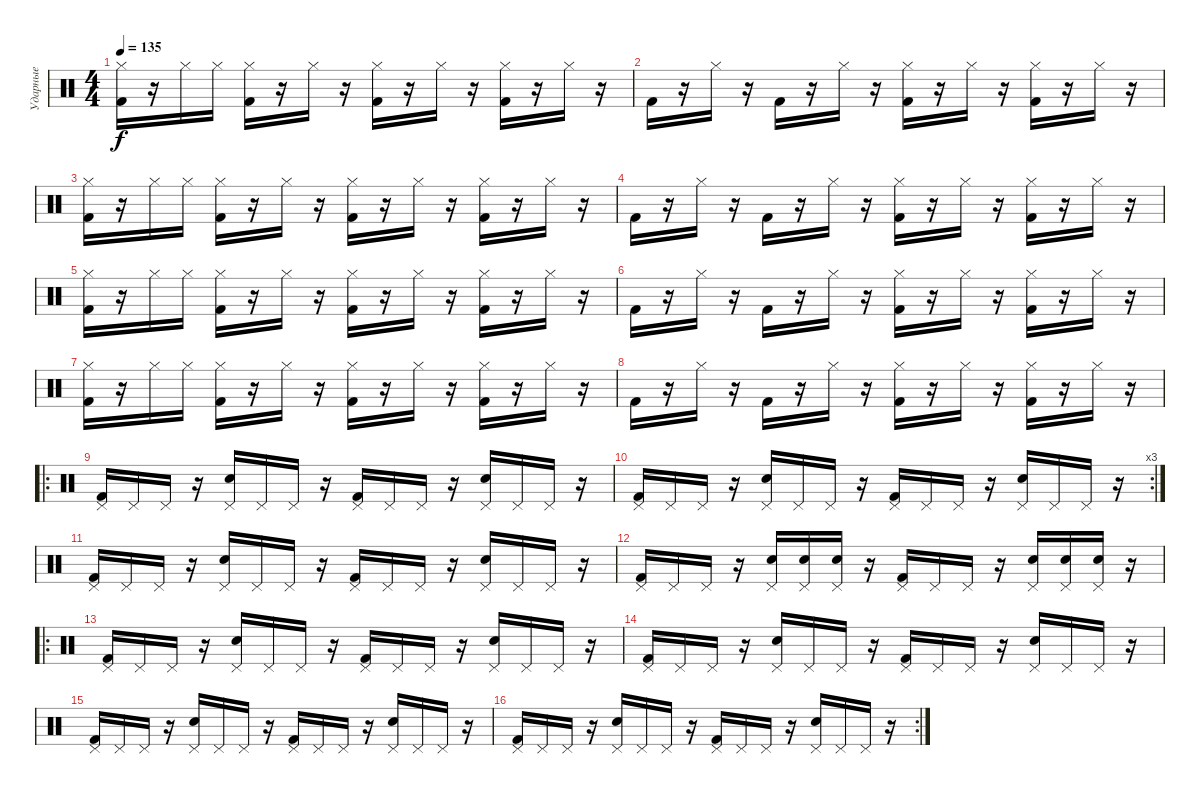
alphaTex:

\track ("Ударные" "Ударные") {instrument percussion}
\staff {score}
\articulation defaults
\ts (4 4)
\tempo 135
\clef neutral
\ks c
("Kick (hit) 2" "Hi-Hat (closed)").16{dy f} r.16 "Hi-Hat (closed)".16 "Hi-Hat (closed)".16 ("Kick (hit) 2" "Hi-Hat (closed)").16 r.16 "Hi-Hat (closed)".16 r.16 ("Kick (hit) 2" "Hi-Hat (closed)").16 r.16 "Hi-Hat (closed)".16 r.16 ("Kick (hit) 2" "Hi-Hat (closed)").16 r.16 "Hi-Hat (closed)".16 r.16 |
"Kick (hit) 2".16 r.16 "Hi-Hat (closed)".16 r.16 "Kick (hit) 2".16 r.16 "Hi-Hat (closed)".16 r.16 ("Kick (hit) 2" "Hi-Hat (closed)").16 r.16 "Hi-Hat (closed)".16 r.16 ("Kick (hit) 2" "Hi-Hat (closed)").16 r.16 "Hi-Hat (closed)".16 r.16 |
("Kick (hit) 2" "Hi-Hat (closed)").16 r.16 "Hi-Hat (closed)".16 "Hi-Hat (closed)".16 ("Kick (hit) 2" "Hi-Hat (closed)").16 r.16 "Hi-Hat (closed)".16 r.16 ("Kick (hit) 2" "Hi-Hat (closed)").16 r.16 "Hi-Hat (closed)".16 r.16 ("Kick (hit) 2" "Hi-Hat (closed)").16 r.16 "Hi-Hat (closed)".16 r.16 |
"Kick (hit) 2".16 r.16 "Hi-Hat (closed)".16 r.16 "Kick (hit) 2".16 r.16 "Hi-Hat (closed)".16 r.16 ("Kick (hit) 2" "Hi-Hat (closed)").16 r.16 "Hi-Hat (closed)".16 r.16 ("Kick (hit) 2" "Hi-Hat (closed)").16 r.16 "Hi-Hat (closed)".16 r.16 |
("Kick (hit) 2" "Hi-Hat (closed)").16 r.16 "Hi-Hat (closed)".16 "Hi-Hat (closed)".16 ("Kick (hit) 2" "Hi-Hat (closed)").16 r.16 "Hi-Hat (closed)".16 r.16 ("Kick (hit) 2" "Hi-Hat (closed)").16 r.16 "Hi-Hat (closed)".16 r.16 ("Kick (hit) 2" "Hi-Hat (closed)").16 r.16 "Hi-Hat (closed)".16 r.16 |
"Kick (hit) 2".16 r.16 "Hi-Hat (closed)".16 r.16 "Kick (hit) 2".16 r.16 "Hi-Hat (closed)".16 r.16 ("Kick (hit) 2" "Hi-Hat (closed)").16 r.16 "Hi-Hat (closed)".16 r.16 ("Kick (hit) 2" "Hi-Hat (closed)").16 r.16 "Hi-Hat (closed)".16 r.16 |
("Kick (hit) 2" "Hi-Hat (closed)").16 r.16 "Hi-Hat (closed)".16 "Hi-Hat (closed)".16 ("Kick (hit) 2" "Hi-Hat (closed)").16 r.16 "Hi-Hat (closed)".16 r.16 ("Kick (hit) 2" "Hi-Hat (closed)").16 r.16 "Hi-Hat (closed)".16 r.16 ("Kick (hit) 2" "Hi-Hat (closed)").16 r.16 "Hi-Hat (closed)".16 r.16 |
"Kick (hit) 2".16 r.16 "Hi-Hat (closed)".16 r.16 "Kick (hit) 2".16 r.16 "Hi-Hat (closed)".16 r.16 ("Kick (hit) 2" "Hi-Hat (closed)").16 r.16 "Hi-Hat (closed)".16 r.16 ("Kick (hit) 2" "Hi-Hat (closed)").16 r.16 "Hi-Hat (closed)".16 r.16 |
\ro
("Pedal Hi-Hat (hit)" "Kick (hit) 2").16 "Pedal Hi-Hat (hit)".16 "Pedal Hi-Hat (hit)".16 r.16 ("Pedal Hi-Hat (hit)" "Snare (hit) 2").16 "Pedal Hi-Hat (hit)".16 "Pedal Hi-Hat (hit)".16 r.16 ("Pedal Hi-Hat (hit)" "Kick (hit) 2").16 "Pedal Hi-Hat (hit)".16 "Pedal Hi-Hat (hit)".16 r.16 ("Pedal Hi-Hat (hit)" "Snare (hit) 2").16 "Pedal Hi-Hat (hit)".16 "Pedal Hi-Hat (hit)".16 r.16 |
\rc 3
("Pedal Hi-Hat (hit)" "Kick (hit) 2").16 "Pedal Hi-Hat (hit)".16 "Pedal Hi-Hat (hit)".16 r.16 ("Pedal Hi-Hat (hit)" "Snare (hit) 2").16 "Pedal Hi-Hat (hit)".16 "Pedal Hi-Hat (hit)".16 r.16 ("Pedal Hi-Hat (hit)" "Kick (hit) 2").16 "Pedal Hi-Hat (hit)".16 "Pedal Hi-Hat (hit)".16 r.16 ("Pedal Hi-Hat (hit)" "Snare (hit) 2").16 "Pedal Hi-Hat (hit)".16 "Pedal Hi-Hat (hit)".16 r.16 |
("Pedal Hi-Hat (hit)" "Kick (hit) 2").16 "Pedal Hi-Hat (hit)".16 "Pedal Hi-Hat (hit)".16 r.16 ("Pedal Hi-Hat (hit)" "Snare (hit) 2").16 "Pedal Hi-Hat (hit)".16 "Pedal Hi-Hat (hit)".16 r.16 ("Pedal Hi-Hat (hit)" "Kick (hit) 2").16 "Pedal Hi-Hat (hit)".16 "Pedal Hi-Hat (hit)".16 r.16 ("Pedal Hi-Hat (hit)" "Snare (hit) 2").16 "Pedal Hi-Hat (hit)".16 "Pedal Hi-Hat (hit)".16 r.16 |
("Pedal Hi-Hat (hit)" "Kick (hit) 2").16 "Pedal Hi-Hat (hit)".16 "Pedal Hi-Hat (hit)".16 r.16 ("Pedal Hi-Hat (hit)" "Snare (hit) 2").16 ("Pedal Hi-Hat (hit)" "Snare (hit) 2").16 ("Pedal Hi-Hat (hit)" "Snare (hit) 2").16 r.16 ("Pedal Hi-Hat (hit)" "Kick (hit) 2").16 "Pedal Hi-Hat (hit)".16 "Pedal Hi-Hat (hit)".16 r.16 ("Pedal Hi-Hat (hit)" "Snare (hit) 2").16 ("Pedal Hi-Hat (hit)" "Snare (hit) 2").16 ("Pedal Hi-Hat (hit)" "Snare (hit) 2").16 r.16 |
\ro
("Pedal Hi-Hat (hit)" "Kick (hit) 2").16 "Pedal Hi-Hat (hit)".16 "Pedal Hi-Hat (hit)".16 r.16 ("Pedal Hi-Hat (hit)" "Snare (hit) 2").16 "Pedal Hi-Hat (hit)".16 "Pedal Hi-Hat (hit)".16 r.16 ("Pedal Hi-Hat (hit)" "Kick (hit) 2").16 "Pedal Hi-Hat (hit)".16 "Pedal Hi-Hat (hit)".16 r.16 ("Pedal Hi-Hat (hit)" "Snare (hit) 2").16 "Pedal Hi-Hat (hit)".16 "Pedal Hi-Hat (hit)".16 r.16 |
("Pedal Hi-Hat (hit)" "Kick (hit) 2").16 "Pedal Hi-Hat (hit)".16 "Pedal Hi-Hat (hit)".16 r.16 ("Pedal Hi-Hat (hit)" "Snare (hit) 2").16 "Pedal Hi-Hat (hit)".16 "Pedal Hi-Hat (hit)".16 r.16 ("Pedal Hi-Hat (hit)" "Kick (hit) 2").16 "Pedal Hi-Hat (hit)".16 "Pedal Hi-Hat (hit)".16 r.16 ("Pedal Hi-Hat (hit)" "Snare (hit) 2").16 "Pedal Hi-Hat (hit)".16 "Pedal Hi-Hat (hit)".16 r.16 |
("Pedal Hi-Hat (hit)" "Kick (hit) 2").16 "Pedal Hi-Hat (hit)".16 "Pedal Hi-Hat (hit)".16 r.16 ("Pedal Hi-Hat (hit)" "Snare (hit) 2").16 "Pedal Hi-Hat (hit)".16 "Pedal Hi-Hat (hit)".16 r.16 ("Pedal Hi-Hat (hit)" "Kick (hit) 2").16 "Pedal Hi-Hat (hit)".16 "Pedal Hi-Hat (hit)".16 r.16 ("Pedal Hi-Hat (hit)" "Snare (hit) 2").16 "Pedal Hi-Hat (hit)".16 "Pedal Hi-Hat (hit)".16 r.16 |
\rc 2
("Pedal Hi-Hat (hit)" "Kick (hit) 2").16 "Pedal Hi-Hat (hit)".16 "Pedal Hi-Hat (hit)".16 r.16 ("Pedal Hi-Hat (hit)" "Snare (hit) 2").16 "Pedal Hi-Hat (hit)".16 "Pedal Hi-Hat (hit)".16 r.16 ("Pedal Hi-Hat (hit)" "Kick (hit) 2").16 "Pedal Hi-Hat (hit)".16 "Pedal Hi-Hat (hit)".16 r.16 ("Pedal Hi-Hat (hit)" "Snare (hit) 2").16 "Pedal Hi-Hat (hit)".16 "Pedal Hi-Hat (hit)".16 r.16
